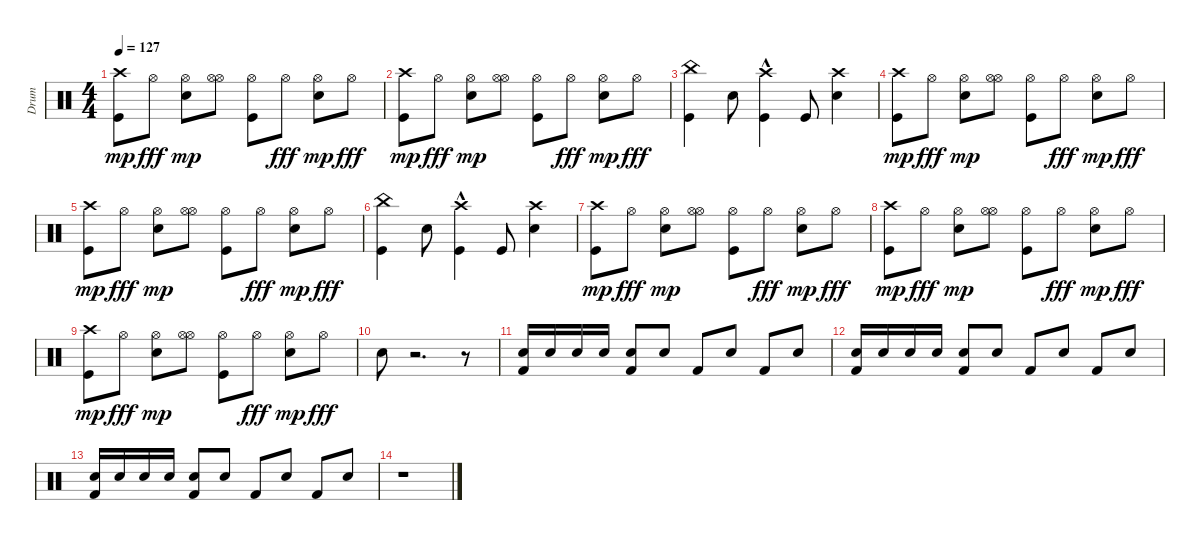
\track ("Drum" "Drum") {instrument percussion}
\staff {score}
\articulation defaults
\ts (4 4)
\tempo 127
\clef neutral
\ks c
("Crash high (hit)" "Kick (hit)").8{dy mp} "Hi-Hat (open)".8{dy fff} ("Electric Snare (hit)" "Hi-Hat (open)").8{dy mp} ("Hi-Hat (open)" "Hi-Hat (open)").8 ("Kick (hit)" "Hi-Hat (open)").8 "Hi-Hat (open)".8{dy fff} ("Electric Snare (hit)" "Hi-Hat (open)").8{dy mp} "Hi-Hat (open)".8{dy fff} |
("Crash high (hit)" "Kick (hit)").8{dy mp} "Hi-Hat (open)".8{dy fff} ("Electric Snare (hit)" "Hi-Hat (open)").8{dy mp} ("Hi-Hat (open)" "Hi-Hat (open)").8 ("Kick (hit)" "Hi-Hat (open)").8 "Hi-Hat (open)".8{dy fff} ("Electric Snare (hit)" "Hi-Hat (open)").8{dy mp} "Hi-Hat (open)".8{dy fff} |
("Kick (hit)" "China (hit)").4 "Electric Snare (hit)".8 ("Crash high (hit)"{hac} "Kick (hit)").4 "Kick (hit)".8 ("Crash high (hit)" "Electric Snare (hit)").4 |
("Crash high (hit)" "Kick (hit)").8{dy mp} "Hi-Hat (open)".8{dy fff} ("Electric Snare (hit)" "Hi-Hat (open)").8{dy mp} ("Hi-Hat (open)" "Hi-Hat (open)").8 ("Kick (hit)" "Hi-Hat (open)").8 "Hi-Hat (open)".8{dy fff} ("Electric Snare (hit)" "Hi-Hat (open)").8{dy mp} "Hi-Hat (open)".8{dy fff} |
("Crash high (hit)" "Kick (hit)").8{dy mp} "Hi-Hat (open)".8{dy fff} ("Electric Snare (hit)" "Hi-Hat (open)").8{dy mp} ("Hi-Hat (open)" "Hi-Hat (open)").8 ("Kick (hit)" "Hi-Hat (open)").8 "Hi-Hat (open)".8{dy fff} ("Electric Snare (hit)" "Hi-Hat (open)").8{dy mp} "Hi-Hat (open)".8{dy fff} |
("Kick (hit)" "China (hit)").4 "Electric Snare (hit)".8 ("Crash high (hit)"{hac} "Kick (hit)").4 "Kick (hit)".8 ("Crash high (hit)" "Electric Snare (hit)").4 |
("Crash high (hit)" "Kick (hit)").8{dy mp} "Hi-Hat (open)".8{dy fff} ("Electric Snare (hit)" "Hi-Hat (open)").8{dy mp} ("Hi-Hat (open)" "Hi-Hat (open)").8 ("Kick (hit)" "Hi-Hat (open)").8 "Hi-Hat (open)".8{dy fff} ("Electric Snare (hit)" "Hi-Hat (open)").8{dy mp} "Hi-Hat (open)".8{dy fff} |
("Crash high (hit)" "Kick (hit)").8{dy mp} "Hi-Hat (open)".8{dy fff} ("Electric Snare (hit)" "Hi-Hat (open)").8{dy mp} ("Hi-Hat (open)" "Hi-Hat (open)").8 ("Kick (hit)" "Hi-Hat (open)").8 "Hi-Hat (open)".8{dy fff} ("Electric Snare (hit)" "Hi-Hat (open)").8{dy mp} "Hi-Hat (open)".8{dy fff} |
("Crash high (hit)" "Kick (hit)").8{dy mp} "Hi-Hat (open)".8{dy fff} ("Electric Snare (hit)" "Hi-Hat (open)").8{dy mp} ("Hi-Hat (open)" "Hi-Hat (open)").8 ("Kick (hit)" "Hi-Hat (open)").8 "Hi-Hat (open)".8{dy fff} ("Electric Snare (hit)" "Hi-Hat (open)").8{dy mp} "Hi-Hat (open)".8{dy fff} |
"Electric Snare (hit)".8 r.2{d} r.8 |
("Electric Snare (hit)" "Kick (hit) 2").16 "Electric Snare (hit)".16 "Electric Snare (hit)".16 "Electric Snare (hit)".16 ("Electric Snare (hit)" "Kick (hit) 2").8 "Electric Snare (hit)".8 "Kick (hit) 2".8 "Electric Snare (hit)".8 "Kick (hit) 2".8 "Electric Snare (hit)".8 |
("Electric Snare (hit)" "Kick (hit) 2").16 "Electric Snare (hit)".16 "Electric Snare (hit)".16 "Electric Snare (hit)".16 ("Electric Snare (hit)" "Kick (hit) 2").8 "Electric Snare (hit)".8 "Kick (hit) 2".8 "Electric Snare (hit)".8 "Kick (hit) 2".8 "Electric Snare (hit)".8 |
("Electric Snare (hit)" "Kick (hit) 2").16 "Electric Snare (hit)".16 "Electric Snare (hit)".16 "Electric Snare (hit)".16 ("Electric Snare (hit)" "Kick (hit) 2").8 "Electric Snare (hit)".8 "Kick (hit) 2".8 "Electric Snare (hit)".8 "Kick (hit) 2".8 "Electric Snare (hit)".8 |
r.1
